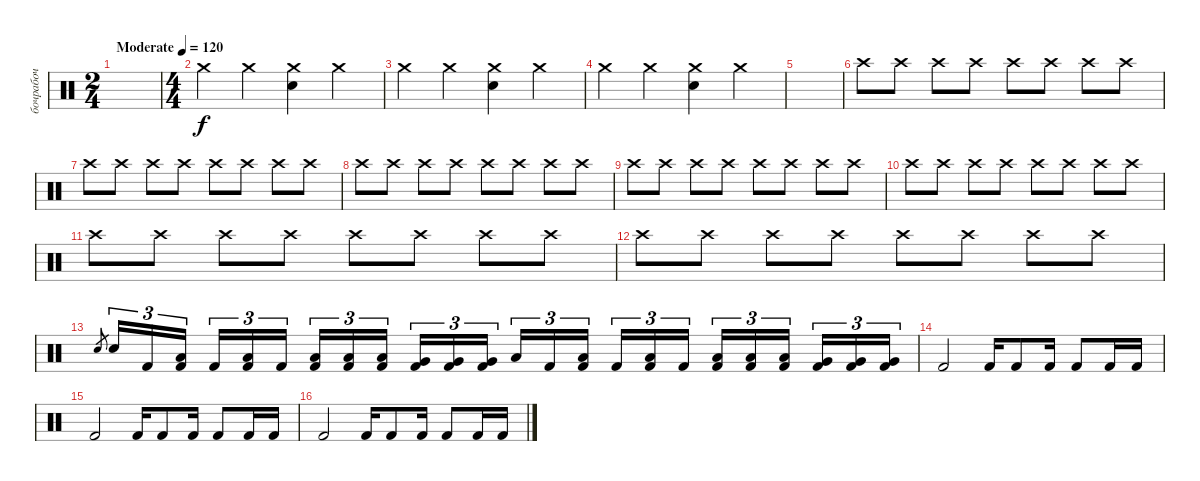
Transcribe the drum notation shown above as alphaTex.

\track ("бочрабоч" "бочрабоч") {instrument percussion}
\staff {score}
\articulation defaults
\ts (2 4)
\tempo (120 "Moderate")
\clef neutral
\ks c
|
\ts (4 4)
"Crash medium (hit)".4 "Crash medium (hit)".4 ("Snare (hit) 2" "Crash medium (hit)").4 "Crash medium (hit)".4 |
"Crash medium (hit)".4 "Crash medium (hit)".4 ("Crash medium (hit)" "Snare (hit) 2").4 "Crash medium (hit)".4 |
"Crash medium (hit)".4 "Crash medium (hit)".4 ("Crash medium (hit)" "Snare (hit) 2").4 "Crash medium (hit)".4 |
|
"Crash high (hit)".8 "Crash high (hit)".8 "Crash high (hit)".8 "Crash high (hit)".8 "Crash high (hit)".8 "Crash high (hit)".8 "Crash high (hit)".8 "Crash high (hit)".8 |
"Crash high (hit)".8 "Crash high (hit)".8 "Crash high (hit)".8 "Crash high (hit)".8 "Crash high (hit)".8 "Crash high (hit)".8 "Crash high (hit)".8 "Crash high (hit)".8 |
"Crash high (hit)".8 "Crash high (hit)".8 "Crash high (hit)".8 "Crash high (hit)".8 "Crash high (hit)".8 "Crash high (hit)".8 "Crash high (hit)".8 "Crash high (hit)".8 |
"Crash high (hit)".8 "Crash high (hit)".8 "Crash high (hit)".8 "Crash high (hit)".8 "Crash high (hit)".8 "Crash high (hit)".8 "Crash high (hit)".8 "Crash high (hit)".8 |
"Crash high (hit)".8 "Crash high (hit)".8 "Crash high (hit)".8 "Crash high (hit)".8 "Crash high (hit)".8 "Crash high (hit)".8 "Crash high (hit)".8 "Crash high (hit)".8 |
"Crash high (hit)".8 "Crash high (hit)".8 "Crash high (hit)".8 "Crash high (hit)".8 "Crash high (hit)".8 "Crash high (hit)".8 "Crash high (hit)".8 "Crash high (hit)".8 |
"Crash high (hit)".8 "Crash high (hit)".8 "Crash high (hit)".8 "Crash high (hit)".8 "Crash high (hit)".8 "Crash high (hit)".8 "Crash high (hit)".8 "Crash high (hit)".8 |
"Electric Snare (hit)".8{gr} "Electric Snare (hit)".16{tu (3 2)} "Kick (hit) 2".16{tu (3 2)} ("Low Tom (hit)" "Kick (hit) 2").16{tu (3 2) beam splitsecondary} "Kick (hit) 2".16{tu (3 2)} ("Low Tom (hit)" "Kick (hit) 2").16{tu (3 2)} "Kick (hit) 2".16{tu (3 2)} ("Low Tom (hit)" "Kick (hit) 2").16{tu (3 2)} ("Low Tom (hit)" "Kick (hit) 2").16{tu (3 2)} ("Low Tom (hit)" "Kick (hit) 2").16{tu (3 2) beam splitsecondary} ("Very Low Tom (hit)" "Kick (hit) 2").16{tu (3 2)} ("Very Low Tom (hit)" "Kick (hit) 2").16{tu (3 2)} ("Very Low Tom (hit)" "Kick (hit) 2").16{tu (3 2)} "Low Floor Tom (hit)".16{tu (3 2)} "Kick (hit) 2".16{tu (3 2)} ("Low Tom (hit)" "Kick (hit) 2").16{tu (3 2) beam splitsecondary} "Kick (hit) 2".16{tu (3 2)} ("Low Tom (hit)" "Kick (hit) 2").16{tu (3 2)} "Kick (hit) 2".16{tu (3 2)} ("Low Tom (hit)" "Kick (hit) 2").16{tu (3 2)} ("Low Tom (hit)" "Kick (hit) 2").16{tu (3 2)} ("Low Tom (hit)" "Kick (hit) 2").16{tu (3 2) beam splitsecondary} ("Very Low Tom (hit)" "Kick (hit) 2").16{tu (3 2)} ("Very Low Tom (hit)" "Kick (hit) 2").16{tu (3 2)} ("Very Low Tom (hit)" "Kick (hit) 2").16{tu (3 2)} |
"Kick (hit) 2".2 "Kick (hit) 2".16 "Kick (hit) 2".8 "Kick (hit) 2".16 "Kick (hit) 2".8 "Kick (hit) 2".16 "Kick (hit) 2".16 |
"Kick (hit) 2".2 "Kick (hit) 2".16 "Kick (hit) 2".8 "Kick (hit) 2".16 "Kick (hit) 2".8 "Kick (hit) 2".16 "Kick (hit) 2".16 |
"Kick (hit) 2".2 "Kick (hit) 2".16 "Kick (hit) 2".8 "Kick (hit) 2".16 "Kick (hit) 2".8 "Kick (hit) 2".16 "Kick (hit) 2".16
